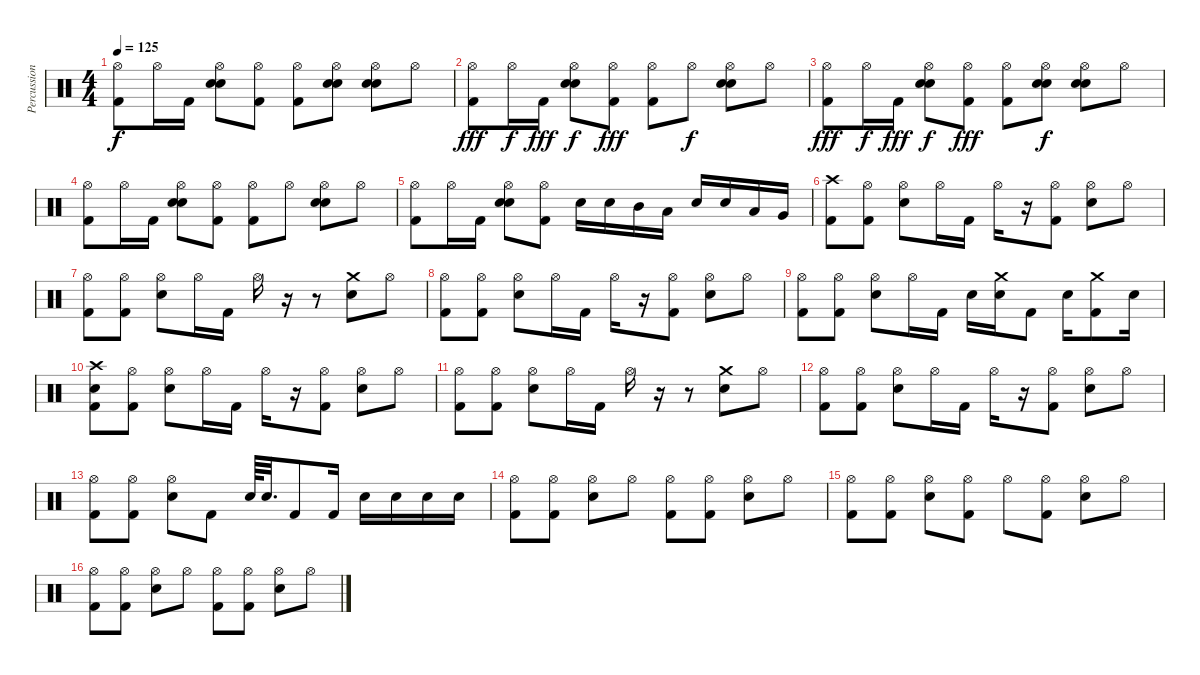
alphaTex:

\track ("Percussion" "Percussion") {instrument percussion}
\staff {score}
\articulation defaults
\ts (4 4)
\tempo 125
\clef neutral
\ks c
("Hi-Hat (open)" "Kick (hit) 2").8{dy f} "Hi-Hat (open)".16 "Kick (hit) 2".16 ("Hand Clap (hit)" "Hi-Hat (open)" "Electric Snare (hit)").8 ("Hi-Hat (open)" "Kick (hit) 2").8 ("Hi-Hat (open)" "Kick (hit) 2").8 ("Hand Clap (hit)" "Hi-Hat (open)" "Electric Snare (hit)").8 ("Hand Clap (hit)" "Hi-Hat (open)" "Electric Snare (hit)").8 "Hi-Hat (open)".8 |
("Hi-Hat (open)" "Kick (hit) 2").8{dy fff} "Hi-Hat (open)".16{dy f} "Kick (hit) 2".16{dy fff} ("Hand Clap (hit)" "Hi-Hat (open)" "Electric Snare (hit)").8{dy f} ("Hi-Hat (open)" "Kick (hit) 2").8{dy fff} ("Hi-Hat (open)" "Kick (hit) 2").8 "Hi-Hat (open)".8{dy f} ("Hand Clap (hit)" "Hi-Hat (open)" "Electric Snare (hit)").8 "Hi-Hat (open)".8 |
("Hi-Hat (open)" "Kick (hit) 2").8{dy fff} "Hi-Hat (open)".16{dy f} "Kick (hit) 2".16{dy fff} ("Hand Clap (hit)" "Hi-Hat (open)" "Electric Snare (hit)").8{dy f} ("Hi-Hat (open)" "Kick (hit) 2").8{dy fff} ("Hi-Hat (open)" "Kick (hit) 2").8 ("Hand Clap (hit)" "Hi-Hat (open)" "Electric Snare (hit)").8{dy f} ("Hand Clap (hit)" "Hi-Hat (open)" "Electric Snare (hit)").8 "Hi-Hat (open)".8 |
("Hi-Hat (open)" "Kick (hit) 2").8 "Hi-Hat (open)".16 "Kick (hit) 2".16 ("Hand Clap (hit)" "Hi-Hat (open)" "Electric Snare (hit)").8 ("Hi-Hat (open)" "Kick (hit) 2").8 ("Hi-Hat (open)" "Kick (hit) 2").8 "Hi-Hat (open)".8 ("Hand Clap (hit)" "Hi-Hat (open)" "Electric Snare (hit)").8 "Hi-Hat (open)".8 |
("Hi-Hat (open)" "Kick (hit) 2").8 "Hi-Hat (open)".16 "Kick (hit) 2".16 ("Hand Clap (hit)" "Hi-Hat (open)" "Electric Snare (hit)").8 ("Hi-Hat (open)" "Kick (hit) 2").8 "Electric Snare (hit)".16 "Electric Snare (hit)".16 "Mid Tom (hit)".16 "Low Tom (hit)".16 "Electric Snare (hit)".16 "Electric Snare (hit)".16 "Low Tom (hit)".16 "Very Low Tom (hit)".16 |
("Crash high (hit)" "Kick (hit) 2").8 ("Hi-Hat (open)" "Kick (hit) 2").8 ("Hi-Hat (open)" "Electric Snare (hit)").8 "Hi-Hat (open)".16 "Kick (hit) 2".16 "Hi-Hat (open)".16 r.16 ("Hi-Hat (open)" "Kick (hit) 2").8 ("Hi-Hat (open)" "Electric Snare (hit)").8 "Hi-Hat (open)".8 |
("Hi-Hat (open)" "Kick (hit) 2").8 ("Hi-Hat (open)" "Kick (hit) 2").8 ("Hi-Hat (open)" "Electric Snare (hit)").8 "Hi-Hat (open)".16 "Kick (hit) 2".16 "Hi-Hat (open)".16 r.16 r.8 ("Crash medium (hit)" "Electric Snare (hit)").8 "Hi-Hat (open)".8 |
("Hi-Hat (open)" "Kick (hit) 2").8 ("Hi-Hat (open)" "Kick (hit) 2").8 ("Hi-Hat (open)" "Electric Snare (hit)").8 "Hi-Hat (open)".16 "Kick (hit) 2".16 "Hi-Hat (open)".16 r.16 ("Hi-Hat (open)" "Kick (hit) 2").8 ("Hi-Hat (open)" "Electric Snare (hit)").8 "Hi-Hat (open)".8 |
("Hi-Hat (open)" "Kick (hit) 2").8 ("Hi-Hat (open)" "Kick (hit) 2").8 ("Hi-Hat (open)" "Electric Snare (hit)").8 "Hi-Hat (open)".16 "Kick (hit) 2".16 "Electric Snare (hit)".16 ("Crash medium (hit)" "Electric Snare (hit)").16 "Kick (hit) 2".8 "Electric Snare (hit)".16 ("Crash medium (hit)" "Kick (hit) 2").8 "Electric Snare (hit)".16 |
("Crash high (hit)" "Electric Snare (hit)" "Kick (hit) 2").8 ("Hi-Hat (open)" "Kick (hit) 2").8 ("Hi-Hat (open)" "Electric Snare (hit)").8 "Hi-Hat (open)".16 "Kick (hit) 2".16 "Hi-Hat (open)".16 r.16 ("Hi-Hat (open)" "Kick (hit) 2").8 ("Hi-Hat (open)" "Electric Snare (hit)").8 "Hi-Hat (open)".8 |
("Hi-Hat (open)" "Kick (hit) 2").8 ("Hi-Hat (open)" "Kick (hit) 2").8 ("Hi-Hat (open)" "Electric Snare (hit)").8 "Hi-Hat (open)".16 "Kick (hit) 2".16 "Hi-Hat (open)".16 r.16 r.8 ("Crash medium (hit)" "Electric Snare (hit)").8 "Hi-Hat (open)".8 |
("Hi-Hat (open)" "Kick (hit) 2").8 ("Hi-Hat (open)" "Kick (hit) 2").8 ("Hi-Hat (open)" "Electric Snare (hit)").8 "Hi-Hat (open)".16 "Kick (hit) 2".16 "Hi-Hat (open)".16 r.16 ("Hi-Hat (open)" "Kick (hit) 2").8 ("Hi-Hat (open)" "Electric Snare (hit)").8 "Hi-Hat (open)".8 |
("Hi-Hat (open)" "Kick (hit) 2").8 ("Hi-Hat (open)" "Kick (hit) 2").8 ("Hi-Hat (open)" "Electric Snare (hit)").8 "Kick (hit) 2".8 "Electric Snare (hit)".64 "Electric Snare (hit)".32{d} "Kick (hit) 2".8 "Kick (hit) 2".16 "Electric Snare (hit)".16 "Electric Snare (hit)".16 "Electric Snare (hit)".16 "Electric Snare (hit)".16 |
("Hi-Hat (open)" "Kick (hit) 2").8 ("Hi-Hat (open)" "Kick (hit) 2").8 ("Hi-Hat (open)" "Electric Snare (hit)").8 "Hi-Hat (open)".8 ("Hi-Hat (open)" "Kick (hit) 2").8 ("Hi-Hat (open)" "Kick (hit) 2").8 ("Hi-Hat (open)" "Electric Snare (hit)").8 "Hi-Hat (open)".8 |
("Hi-Hat (open)" "Kick (hit) 2").8 ("Hi-Hat (open)" "Kick (hit) 2").8 ("Hi-Hat (open)" "Electric Snare (hit)").8 ("Hi-Hat (open)" "Kick (hit) 2").8 "Hi-Hat (open)".8 ("Hi-Hat (open)" "Kick (hit) 2").8 ("Hi-Hat (open)" "Electric Snare (hit)").8 "Hi-Hat (open)".8 |
("Hi-Hat (open)" "Kick (hit) 2").8 ("Hi-Hat (open)" "Kick (hit) 2").8 ("Hi-Hat (open)" "Electric Snare (hit)").8 "Hi-Hat (open)".8 ("Hi-Hat (open)" "Kick (hit) 2").8 ("Hi-Hat (open)" "Kick (hit) 2").8 ("Hi-Hat (open)" "Electric Snare (hit)").8 "Hi-Hat (open)".8
